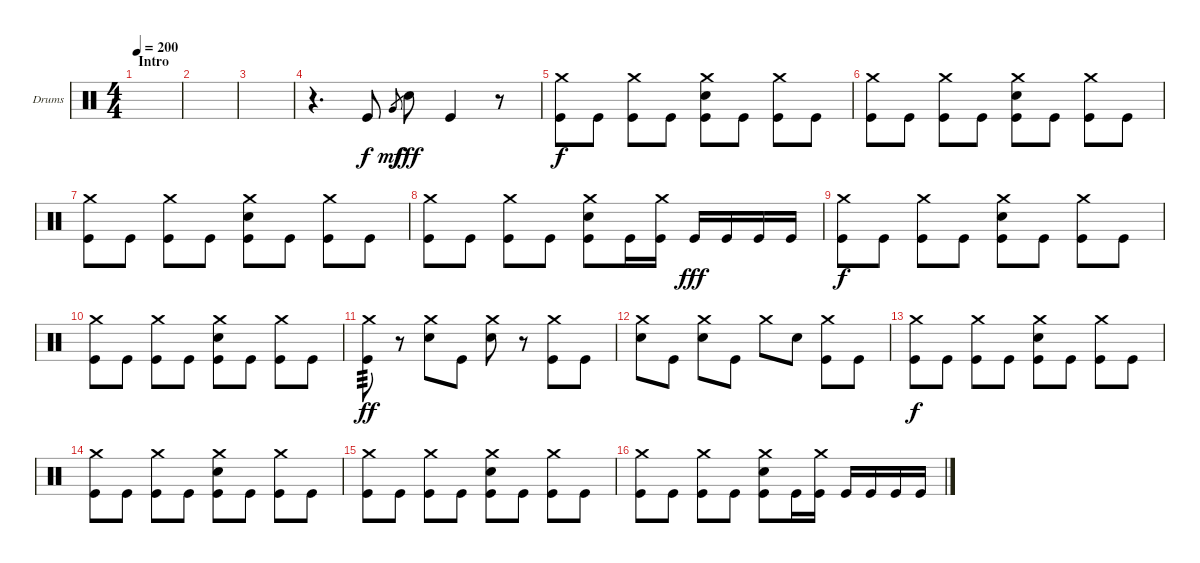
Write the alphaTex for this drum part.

\defaultSystemsLayout 4
\bracketExtendMode groupsimilarinstruments
\firstSystemTrackNameOrientation horizontal
\otherSystemsTrackNameOrientation horizontal
\track ("Drumkit" "Drums") {instrument percussion}
\staff {score}
\articulation defaults
\ts (4 4)
\section ("" "Intro")
\tempo 200
\clef neutral
\ks c
|
|
|
r.4{d} "Kick (hit)".8 "Very Low Tom (hit)".8{gr dy mf} "Snare (hit) 2".8{dy fff} "Kick (hit)".4 r.8 |
("Crash medium (hit)" "Kick (hit)").8{dy f} "Kick (hit)".8 ("Crash medium (hit)" "Kick (hit)").8 "Kick (hit)".8 ("Crash medium (hit)" "Snare (hit) 2" "Kick (hit)").8 "Kick (hit)".8 ("Crash medium (hit)" "Kick (hit)").8 "Kick (hit)".8 |
("Crash medium (hit)" "Kick (hit)").8 "Kick (hit)".8 ("Crash medium (hit)" "Kick (hit)").8 "Kick (hit)".8 ("Crash medium (hit)" "Snare (hit) 2" "Kick (hit)").8 "Kick (hit)".8 ("Crash medium (hit)" "Kick (hit)").8 "Kick (hit)".8 |
("Crash medium (hit)" "Kick (hit)").8 "Kick (hit)".8 ("Crash medium (hit)" "Kick (hit)").8 "Kick (hit)".8 ("Crash medium (hit)" "Snare (hit) 2" "Kick (hit)").8 "Kick (hit)".8 ("Crash medium (hit)" "Kick (hit)").8 "Kick (hit)".8 |
("Crash medium (hit)" "Kick (hit)").8 "Kick (hit)".8 ("Crash medium (hit)" "Kick (hit)").8 "Kick (hit)".8 ("Crash medium (hit)" "Snare (hit) 2" "Kick (hit)").8 "Kick (hit)".16 ("Crash medium (hit)" "Kick (hit)").16 "Kick (hit)".16{dy fff} "Kick (hit)".16 "Kick (hit)".16 "Kick (hit)".16 |
("Crash medium (hit)" "Kick (hit)").8{dy f} "Kick (hit)".8 ("Crash medium (hit)" "Kick (hit)").8 "Kick (hit)".8 ("Crash medium (hit)" "Snare (hit) 2" "Kick (hit)").8 "Kick (hit)".8 ("Crash medium (hit)" "Kick (hit)").8 "Kick (hit)".8 |
("Crash medium (hit)" "Kick (hit)").8 "Kick (hit)".8 ("Crash medium (hit)" "Kick (hit)").8 "Kick (hit)".8 ("Crash medium (hit)" "Snare (hit) 2" "Kick (hit)").8 "Kick (hit)".8 ("Crash medium (hit)" "Kick (hit)").8 "Kick (hit)".8 |
("Crash medium (hit)" "Kick (hit)").8{tp 3 dy ff} r.8 ("Crash medium (hit)" "Snare (hit) 2").8 "Kick (hit)".8 ("Crash medium (hit)" "Snare (hit) 2").8 r.8 ("Crash medium (hit)" "Kick (hit)").8 "Kick (hit)".8 |
("Crash medium (hit)" "Snare (hit) 2").8 "Kick (hit)".8 ("Crash medium (hit)" "Snare (hit) 2").8 "Kick (hit)".8 "Crash medium (hit)".8 "Snare (hit) 2".8 ("Crash medium (hit)" "Kick (hit)").8 "Kick (hit)".8 |
("Crash medium (hit)" "Kick (hit)").8{dy f} "Kick (hit)".8 ("Crash medium (hit)" "Kick (hit)").8 "Kick (hit)".8 ("Crash medium (hit)" "Snare (hit) 2" "Kick (hit)").8 "Kick (hit)".8 ("Crash medium (hit)" "Kick (hit)").8 "Kick (hit)".8 |
("Crash medium (hit)" "Kick (hit)").8 "Kick (hit)".8 ("Crash medium (hit)" "Kick (hit)").8 "Kick (hit)".8 ("Crash medium (hit)" "Snare (hit) 2" "Kick (hit)").8 "Kick (hit)".8 ("Crash medium (hit)" "Kick (hit)").8 "Kick (hit)".8 |
("Crash medium (hit)" "Kick (hit)").8 "Kick (hit)".8 ("Crash medium (hit)" "Kick (hit)").8 "Kick (hit)".8 ("Crash medium (hit)" "Snare (hit) 2" "Kick (hit)").8 "Kick (hit)".8 ("Crash medium (hit)" "Kick (hit)").8 "Kick (hit)".8 |
("Crash medium (hit)" "Kick (hit)").8 "Kick (hit)".8 ("Crash medium (hit)" "Kick (hit)").8 "Kick (hit)".8 ("Crash medium (hit)" "Snare (hit) 2" "Kick (hit)").8 "Kick (hit)".16 ("Crash medium (hit)" "Kick (hit)").16 "Kick (hit)".16 "Kick (hit)".16 "Kick (hit)".16 "Kick (hit)".16
